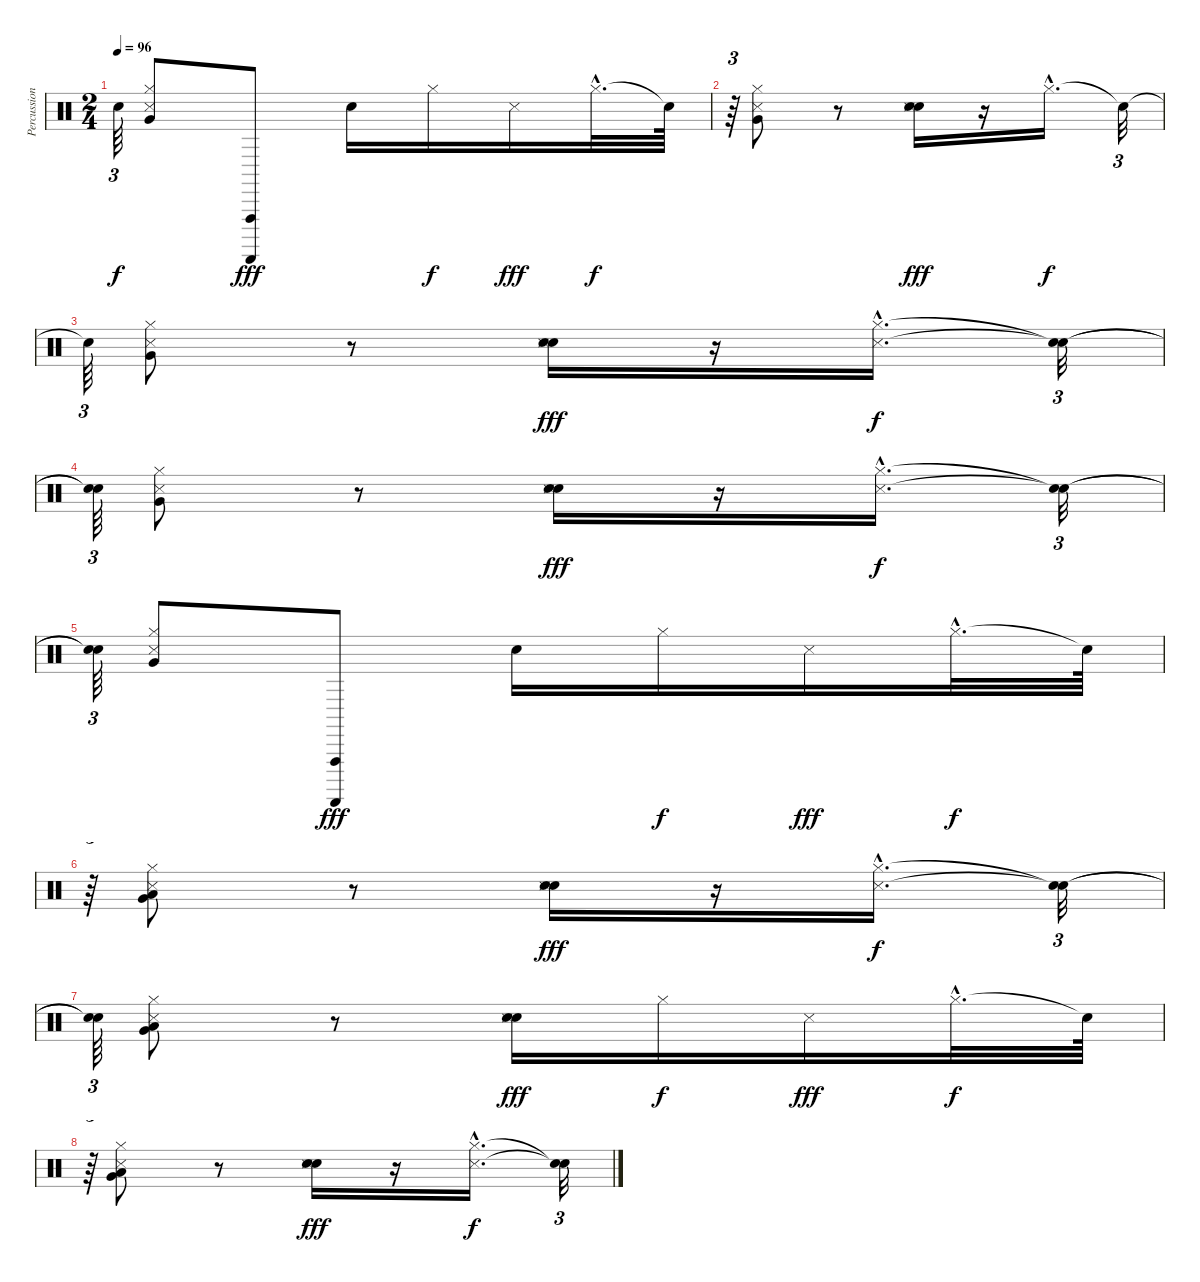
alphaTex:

\track ("Percussion" "Percussion") {instrument percussion}
\staff {score}
\articulation defaults
\ts (2 4)
\tempo 96
\clef neutral
\ks c "Snare (hit)"{t}.64{tu (3 2) dy f}
("Hi-Hat (closed)" "Snare (side stick) 3" "Very Low Tom (hit)").8 ("Guiro (scrap-return)" "Vibraslap (hit)").8{dy fff} "Snare (hit) 2".16 "Hi-Hat (closed)".16{dy f} "Snare (side stick) 3".16{dy fff} "Hi-Hat (closed)"{hac}.32{d dy f} "Snare (hit)"{t}.64 |
r.64{tu (3 2)} ("Hi-Hat (closed)" "Snare (side stick) 3" "Very Low Tom (hit)").8 r.8 ("Electric Snare (hit)" "Snare (side stick) 3" "Snare (hit) 2").16{dy fff} r.16 "Hi-Hat (closed)"{hac}.16{d dy f} "Snare (hit)"{t}.32{tu (3 2)} |
"Snare (hit)"{t}.64{tu (3 2)} ("Hi-Hat (closed)" "Snare (side stick) 3" "Very Low Tom (hit)").8 r.8 ("Electric Snare (hit)" "Snare (side stick) 3" "Snare (hit) 2").16{dy fff} r.16 ("Hi-Hat (closed)"{hac} "Snare (side stick) 3"{hac}).16{d dy f} ("Snare (hit)"{t} "Snare (hit)"{t}).32{tu (3 2)} |
("Snare (hit)"{t} "Snare (hit)"{t}).64{tu (3 2)} ("Hi-Hat (closed)" "Snare (side stick) 3" "Very Low Tom (hit)").8 r.8 ("Electric Snare (hit)" "Snare (side stick) 3" "Snare (hit) 2").16{dy fff} r.16 ("Hi-Hat (closed)"{hac} "Snare (side stick) 3"{hac}).16{d dy f} ("Snare (hit)"{t} "Snare (hit)"{t}).32{tu (3 2)} |
("Snare (hit)"{t} "Snare (hit)"{t}).64{tu (3 2)} ("Hi-Hat (closed)" "Snare (side stick) 3" "Very Low Tom (hit)").8 ("Guiro (scrap-return)" "Vibraslap (hit)").8{dy fff} "Snare (hit) 2".16 "Hi-Hat (closed)".16{dy f} "Snare (side stick) 3".16{dy fff} "Hi-Hat (closed)"{hac}.32{d dy f} "Snare (hit)"{t}.64 |
r.64{tu (3 2)} ("Hi-Hat (closed)" "Snare (side stick) 3" "Very Low Tom (hit)" "Low Floor Tom (hit)").8 r.8 ("Electric Snare (hit)" "Snare (side stick) 3" "Snare (hit) 2").16{dy fff} r.16 ("Hi-Hat (closed)"{hac} "Snare (side stick) 3"{hac}).16{d dy f} ("Snare (hit)"{t} "Snare (hit)"{t}).32{tu (3 2)} |
("Snare (hit)"{t} "Snare (hit)"{t}).64{tu (3 2)} ("Hi-Hat (closed)" "Snare (side stick) 3" "Very Low Tom (hit)" "Low Floor Tom (hit)").8 r.8 ("Electric Snare (hit)" "Snare (side stick) 3" "Snare (hit) 2").16{dy fff} "Hi-Hat (closed)".16{dy f} "Snare (side stick) 3".16{dy fff} "Hi-Hat (closed)"{hac}.32{d dy f} "Snare (hit)"{t}.64 |
r.64{tu (3 2)} ("Hi-Hat (closed)" "Snare (side stick) 3" "Very Low Tom (hit)" "Low Floor Tom (hit)").8 r.8 ("Electric Snare (hit)" "Snare (side stick) 3" "Snare (hit) 2").16{dy fff} r.16 ("Hi-Hat (closed)"{hac} "Snare (side stick) 3"{hac}).16{d dy f} ("Snare (hit)"{t} "Snare (hit)"{t}).32{tu (3 2)}
